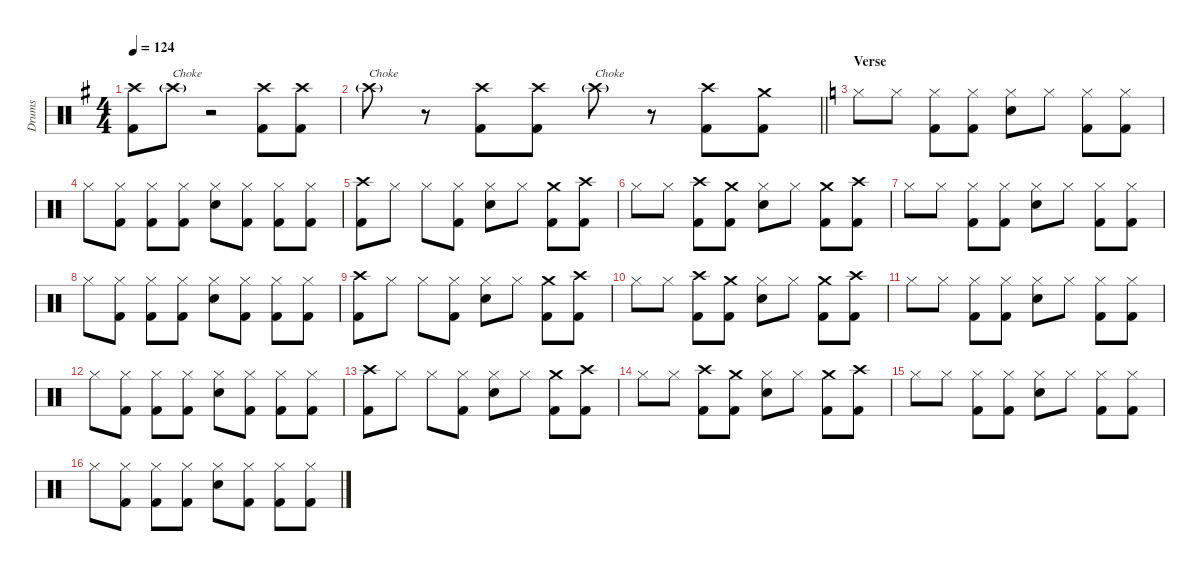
\defaultSystemsLayout 4
\hideDynamics
\bracketExtendMode nobrackets
\firstSystemTrackNameMode fullname
\otherSystemsTrackNameOrientation horizontal
\track ("Drums" "drm.") {instrument percussion}
\staff {score}
\articulation defaults
\ts (4 4)
\tempo 124
\clef neutral
\ks g
("Crash high (hit)"{acc forcenatural} "Kick (hit) 2"{acc forcenatural}).8{dy f beam Down} "Crash high (hit)"{g acc forcenatural}.8{txt "Choke" beam Down} r.2{beam Down} ("Crash high (hit)"{acc forcenatural} "Kick (hit) 2"{acc forcenatural}).8{dy ff beam Down} ("Crash high (hit)"{acc forcenatural} "Kick (hit) 2"{acc forcenatural}).8{beam Down} |
\barLineRight lightlight "Crash high (hit)"{g acc forcenatural}.8{txt "Choke" dy f beam Down}
r.8{beam Down} ("Crash high (hit)"{acc forcenatural} "Kick (hit) 2"{acc forcenatural}).8{dy ff beam Down} ("Crash high (hit)"{acc forcenatural} "Kick (hit) 2"{acc forcenatural}).8{beam Down} "Crash high (hit)"{g acc forcenatural}.8{txt "Choke" dy f beam Down} r.8{beam Down} ("Crash high (hit)"{acc forcenatural} "Kick (hit) 2"{acc forcenatural}).8{dy ff beam Down} ("Crash medium (hit)"{acc forcenatural} "Kick (hit) 2"{acc forcenatural}).8{beam Down} |
\section ("" "Verse")
\ks c "Hi-Hat (closed)".8{dy mp beam Down} "Hi-Hat (closed)".8{dy mf beam Down}
("Hi-Hat (closed)" "Kick (hit) 2").8{dy f beam Down} ("Hi-Hat (closed)" "Kick (hit) 2").8{beam Down} ("Hi-Hat (closed)" "Snare (hit) 2").8{beam Down} "Hi-Hat (closed)".8{beam Down} ("Hi-Hat (closed)" "Kick (hit) 2").8{beam Down} ("Hi-Hat (closed)" "Kick (hit) 2").8{beam Down} |
"Hi-Hat (closed)".8{beam Down} ("Hi-Hat (closed)" "Kick (hit) 2").8{beam Down} ("Hi-Hat (closed)" "Kick (hit) 2").8{beam Down} ("Hi-Hat (closed)" "Kick (hit) 2").8{beam Down} ("Hi-Hat (closed)" "Snare (hit) 2").8{beam Down} ("Hi-Hat (closed)" "Kick (hit) 2").8{beam Down} ("Hi-Hat (closed)" "Kick (hit) 2").8{beam Down} ("Hi-Hat (closed)" "Kick (hit) 2").8{beam Down} |
("Crash high (hit)" "Kick (hit) 2").8{beam Down} "Hi-Hat (closed)".8{dy mp beam Down} "Hi-Hat (closed)".8{dy mf beam Down} ("Hi-Hat (closed)" "Kick (hit) 2").8{beam Down} ("Hi-Hat (closed)" "Snare (hit) 2").8{beam Down} "Hi-Hat (closed)".8{dy f beam Down} ("Crash medium (hit)" "Kick (hit) 2").8{beam Down} ("Crash high (hit)" "Kick (hit) 2").8{beam Down} |
"Hi-Hat (closed)".8{beam Down} "Hi-Hat (closed)".8{beam Down} ("Crash high (hit)" "Kick (hit) 2").8{beam Down} ("Crash medium (hit)" "Kick (hit) 2").8{beam Down} ("Hi-Hat (closed)" "Snare (hit) 2").8{beam Down} "Hi-Hat (closed)".8{beam Down} ("Crash medium (hit)" "Kick (hit) 2").8{beam Down} ("Crash high (hit)" "Kick (hit) 2").8{beam Down} |
"Hi-Hat (closed)".8{dy mp beam Down} "Hi-Hat (closed)".8{dy mf beam Down} ("Hi-Hat (closed)" "Kick (hit) 2").8{dy f beam Down} ("Hi-Hat (closed)" "Kick (hit) 2").8{beam Down} ("Hi-Hat (closed)" "Snare (hit) 2").8{beam Down} "Hi-Hat (closed)".8{beam Down} ("Hi-Hat (closed)" "Kick (hit) 2").8{beam Down} ("Hi-Hat (closed)" "Kick (hit) 2").8{beam Down} |
"Hi-Hat (closed)".8{beam Down} ("Hi-Hat (closed)" "Kick (hit) 2").8{beam Down} ("Hi-Hat (closed)" "Kick (hit) 2").8{beam Down} ("Hi-Hat (closed)" "Kick (hit) 2").8{beam Down} ("Hi-Hat (closed)" "Snare (hit) 2").8{beam Down} ("Hi-Hat (closed)" "Kick (hit) 2").8{beam Down} ("Hi-Hat (closed)" "Kick (hit) 2").8{beam Down} ("Hi-Hat (closed)" "Kick (hit) 2").8{beam Down} |
("Crash high (hit)" "Kick (hit) 2").8{beam Down} "Hi-Hat (closed)".8{dy mp beam Down} "Hi-Hat (closed)".8{dy mf beam Down} ("Hi-Hat (closed)" "Kick (hit) 2").8{beam Down} ("Hi-Hat (closed)" "Snare (hit) 2").8{beam Down} "Hi-Hat (closed)".8{dy f beam Down} ("Crash medium (hit)" "Kick (hit) 2").8{beam Down} ("Crash high (hit)" "Kick (hit) 2").8{beam Down} |
"Hi-Hat (closed)".8{beam Down} "Hi-Hat (closed)".8{beam Down} ("Crash high (hit)" "Kick (hit) 2").8{beam Down} ("Crash medium (hit)" "Kick (hit) 2").8{beam Down} ("Hi-Hat (closed)" "Snare (hit) 2").8{beam Down} "Hi-Hat (closed)".8{beam Down} ("Crash medium (hit)" "Kick (hit) 2").8{beam Down} ("Crash high (hit)" "Kick (hit) 2").8{beam Down} |
"Hi-Hat (closed)".8{dy mp beam Down} "Hi-Hat (closed)".8{dy mf beam Down} ("Hi-Hat (closed)" "Kick (hit) 2").8{dy f beam Down} ("Hi-Hat (closed)" "Kick (hit) 2").8{beam Down} ("Hi-Hat (closed)" "Snare (hit) 2").8{beam Down} "Hi-Hat (closed)".8{beam Down} ("Hi-Hat (closed)" "Kick (hit) 2").8{beam Down} ("Hi-Hat (closed)" "Kick (hit) 2").8{beam Down} |
"Hi-Hat (closed)".8{beam Down} ("Hi-Hat (closed)" "Kick (hit) 2").8{beam Down} ("Hi-Hat (closed)" "Kick (hit) 2").8{beam Down} ("Hi-Hat (closed)" "Kick (hit) 2").8{beam Down} ("Hi-Hat (closed)" "Snare (hit) 2").8{beam Down} ("Hi-Hat (closed)" "Kick (hit) 2").8{beam Down} ("Hi-Hat (closed)" "Kick (hit) 2").8{beam Down} ("Hi-Hat (closed)" "Kick (hit) 2").8{beam Down} |
("Crash high (hit)" "Kick (hit) 2").8{beam Down} "Hi-Hat (closed)".8{dy mp beam Down} "Hi-Hat (closed)".8{dy mf beam Down} ("Hi-Hat (closed)" "Kick (hit) 2").8{beam Down} ("Hi-Hat (closed)" "Snare (hit) 2").8{beam Down} "Hi-Hat (closed)".8{dy f beam Down} ("Crash medium (hit)" "Kick (hit) 2").8{beam Down} ("Crash high (hit)" "Kick (hit) 2").8{beam Down} |
"Hi-Hat (closed)".8{beam Down} "Hi-Hat (closed)".8{beam Down} ("Crash high (hit)" "Kick (hit) 2").8{beam Down} ("Crash medium (hit)" "Kick (hit) 2").8{beam Down} ("Hi-Hat (closed)" "Snare (hit) 2").8{beam Down} "Hi-Hat (closed)".8{beam Down} ("Crash medium (hit)" "Kick (hit) 2").8{beam Down} ("Crash high (hit)" "Kick (hit) 2").8{beam Down} |
"Hi-Hat (closed)".8{dy mp beam Down} "Hi-Hat (closed)".8{dy mf beam Down} ("Hi-Hat (closed)" "Kick (hit) 2").8{dy f beam Down} ("Hi-Hat (closed)" "Kick (hit) 2").8{beam Down} ("Hi-Hat (closed)" "Snare (hit) 2").8{beam Down} "Hi-Hat (closed)".8{beam Down} ("Hi-Hat (closed)" "Kick (hit) 2").8{beam Down} ("Hi-Hat (closed)" "Kick (hit) 2").8{beam Down} |
"Hi-Hat (closed)".8{beam Down} ("Hi-Hat (closed)" "Kick (hit) 2").8{beam Down} ("Hi-Hat (closed)" "Kick (hit) 2").8{beam Down} ("Hi-Hat (closed)" "Kick (hit) 2").8{beam Down} ("Hi-Hat (closed)" "Snare (hit) 2").8{beam Down} ("Hi-Hat (closed)" "Kick (hit) 2").8{beam Down} ("Hi-Hat (closed)" "Kick (hit) 2").8{beam Down} ("Hi-Hat (closed)" "Kick (hit) 2").8{beam Down}
